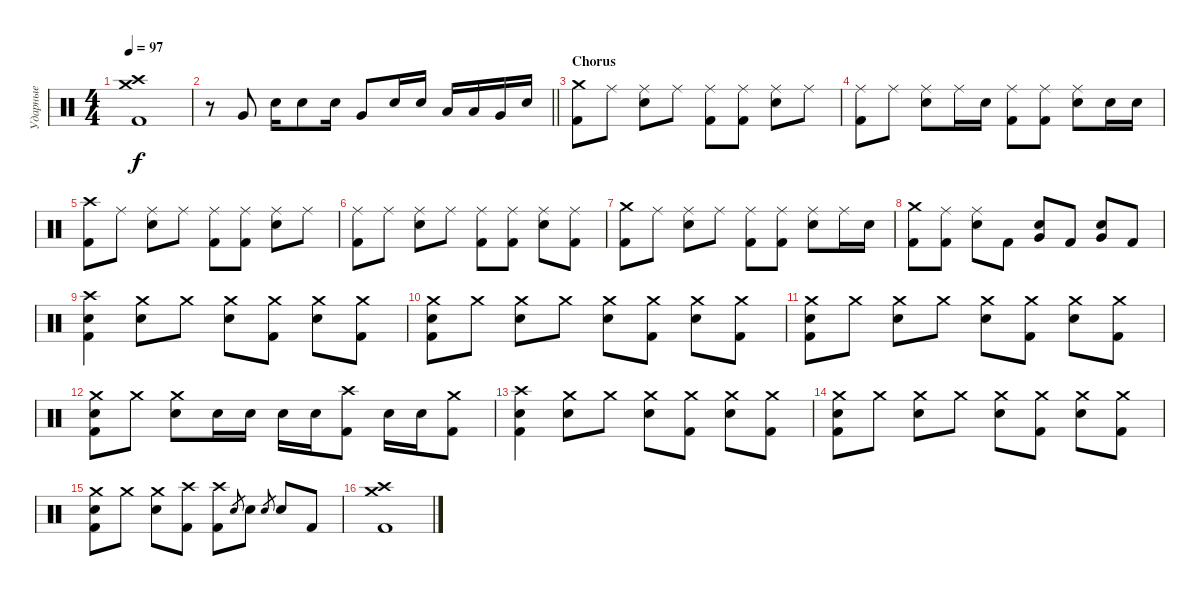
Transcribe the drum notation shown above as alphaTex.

\track ("Ударные" "Ударные") {instrument percussion}
\staff {score}
\articulation defaults
\ts (4 4)
\tempo 97
\clef neutral
\ks c
("Crash high (hit)" "Crash medium (hit)" "Kick (hit) 2").1{dy f} |
\barLineRight lightlight
r.8 "Very Low Tom (hit)".8 "Electric Snare (hit)".16 "Electric Snare (hit)".8 "Electric Snare (hit)".16 "Very Low Tom (hit)".8 "Electric Snare (hit)".16 "Electric Snare (hit)".16 "Low Tom (hit)".16 "Low Tom (hit)".16 "Very Low Tom (hit)".16 "Electric Snare (hit)".16 |
\section ("" "Chorus")
("Crash medium (hit)" "Kick (hit) 2").8 "Ride (middle)".8 ("Ride (middle)" "Electric Snare (hit)").8 "Ride (middle)".8 ("Ride (middle)" "Kick (hit) 2").8 ("Ride (middle)" "Kick (hit) 2").8 ("Ride (middle)" "Electric Snare (hit)").8 "Ride (middle)".8 |
("Ride (middle)" "Kick (hit) 2").8 "Ride (middle)".8 ("Ride (middle)" "Electric Snare (hit)").8 "Ride (middle)".16 "Electric Snare (hit)".16 ("Ride (middle)" "Kick (hit) 2").8 ("Ride (middle)" "Kick (hit) 2").8 ("Ride (middle)" "Electric Snare (hit)").8 "Electric Snare (hit)".16 "Electric Snare (hit)".16 |
("Crash high (hit)" "Kick (hit) 2").8 "Ride (middle)".8 ("Ride (middle)" "Electric Snare (hit)").8 "Ride (middle)".8 ("Ride (middle)" "Kick (hit) 2").8 ("Ride (middle)" "Kick (hit) 2").8 ("Ride (middle)" "Electric Snare (hit)").8 "Ride (middle)".8 |
("Ride (middle)" "Kick (hit) 2").8 "Ride (middle)".8 ("Ride (middle)" "Electric Snare (hit)").8 "Ride (middle)".8 ("Ride (middle)" "Kick (hit) 2").8 ("Ride (middle)" "Kick (hit) 2").8 ("Ride (middle)" "Electric Snare (hit)").8 ("Ride (middle)" "Kick (hit) 2").8 |
("Crash medium (hit)" "Kick (hit) 2").8 "Ride (middle)".8 ("Ride (middle)" "Electric Snare (hit)").8 "Ride (middle)".8 ("Ride (middle)" "Kick (hit) 2").8 ("Ride (middle)" "Kick (hit) 2").8 ("Ride (middle)" "Electric Snare (hit)").8 "Ride (middle)".16 "Electric Snare (hit)".16 |
("Crash medium (hit)" "Kick (hit) 2").8 ("Ride (middle)" "Kick (hit) 2").8 ("Ride (middle)" "Electric Snare (hit)").8 "Kick (hit) 2".8 ("Electric Snare (hit)" "Very Low Tom (hit)").8 "Kick (hit) 2".8 ("Electric Snare (hit)" "Very Low Tom (hit)").8 "Kick (hit) 2".8 |
("Crash high (hit)" "Electric Snare (hit)" "Kick (hit) 2").4 ("Crash medium (hit)" "Electric Snare (hit)").8 "Crash medium (hit)".8 ("Crash medium (hit)" "Electric Snare (hit)").8 ("Crash medium (hit)" "Kick (hit) 2").8 ("Crash medium (hit)" "Electric Snare (hit)").8 ("Crash medium (hit)" "Kick (hit) 2").8 |
("Crash medium (hit)" "Electric Snare (hit)" "Kick (hit) 2").8 "Crash medium (hit)".8 ("Crash medium (hit)" "Electric Snare (hit)").8 "Crash medium (hit)".8 ("Crash medium (hit)" "Electric Snare (hit)").8 ("Crash medium (hit)" "Kick (hit) 2").8 ("Crash medium (hit)" "Electric Snare (hit)").8 ("Crash medium (hit)" "Kick (hit) 2").8 |
("Crash medium (hit)" "Electric Snare (hit)" "Kick (hit) 2").8 "Crash medium (hit)".8 ("Crash medium (hit)" "Electric Snare (hit)").8 "Crash medium (hit)".8 ("Crash medium (hit)" "Electric Snare (hit)").8 ("Crash medium (hit)" "Kick (hit) 2").8 ("Crash medium (hit)" "Electric Snare (hit)").8 ("Crash medium (hit)" "Kick (hit) 2").8 |
("Crash medium (hit)" "Electric Snare (hit)" "Kick (hit) 2").8 "Crash medium (hit)".8 ("Crash medium (hit)" "Electric Snare (hit)").8 "Electric Snare (hit)".16 "Electric Snare (hit)".16 "Electric Snare (hit)".16 "Electric Snare (hit)".16 ("Crash high (hit)" "Kick (hit) 2").8 "Electric Snare (hit)".16 "Electric Snare (hit)".16 ("Crash medium (hit)" "Kick (hit) 2").8 |
("Crash high (hit)" "Electric Snare (hit)" "Kick (hit) 2").4 ("Crash medium (hit)" "Electric Snare (hit)").8 "Crash medium (hit)".8 ("Crash medium (hit)" "Electric Snare (hit)").8 ("Crash medium (hit)" "Kick (hit) 2").8 ("Crash medium (hit)" "Electric Snare (hit)").8 ("Crash medium (hit)" "Kick (hit) 2").8 |
("Crash medium (hit)" "Electric Snare (hit)" "Kick (hit) 2").8 "Crash medium (hit)".8 ("Crash medium (hit)" "Electric Snare (hit)").8 "Crash medium (hit)".8 ("Crash medium (hit)" "Electric Snare (hit)").8 ("Crash medium (hit)" "Kick (hit) 2").8 ("Crash medium (hit)" "Electric Snare (hit)").8 ("Crash medium (hit)" "Kick (hit) 2").8 |
("Crash medium (hit)" "Electric Snare (hit)" "Kick (hit) 2").8 "Crash medium (hit)".8 ("Crash medium (hit)" "Electric Snare (hit)").8 ("Crash high (hit)" "Kick (hit) 2").8 ("Crash high (hit)" "Kick (hit) 2").8 "Electric Snare (hit)".8{gr} "Electric Snare (hit)".8 "Electric Snare (hit)".8{gr} "Electric Snare (hit)".8 "Kick (hit) 2".8 |
("Crash high (hit)" "Crash medium (hit)" "Kick (hit) 2").1
